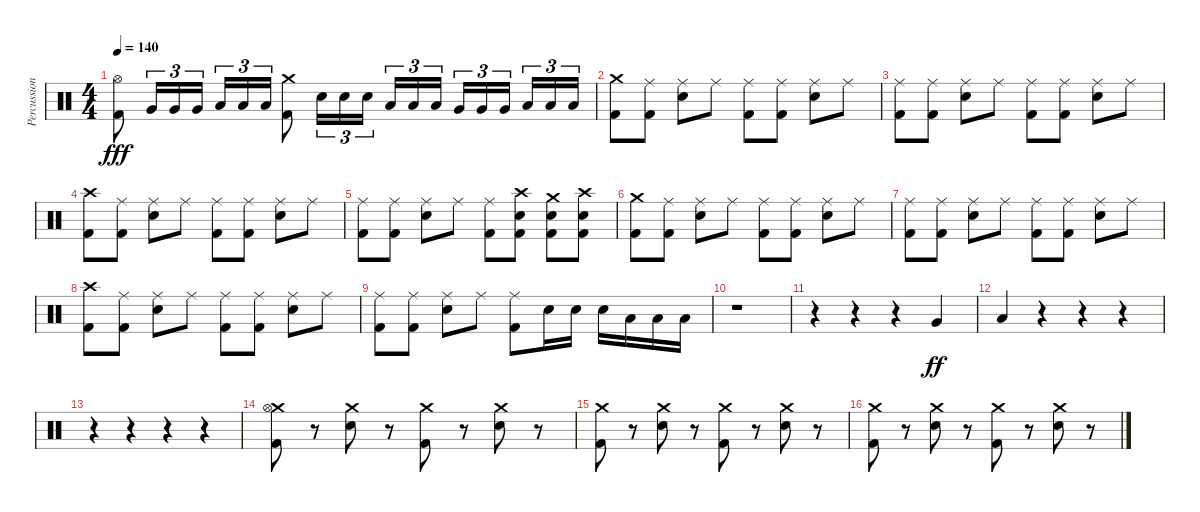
\track ("Percussion" "Percussion") {instrument percussion}
\staff {score}
\articulation defaults
\ts (4 4)
\tempo 140
\clef neutral
\ks c
("Hi-Hat (open)" "Kick (hit) 2").8{dy fff} "Very Low Tom (hit)".16{tu (3 2)} "Very Low Tom (hit)".16{tu (3 2)} "Very Low Tom (hit)".16{tu (3 2)} "Low Floor Tom (hit)".16{tu (3 2)} "Low Floor Tom (hit)".16{tu (3 2)} "Low Floor Tom (hit)".16{tu (3 2)} ("Crash medium (hit)" "Kick (hit) 2").8 "Electric Snare (hit)".16{tu (3 2)} "Electric Snare (hit)".16{tu (3 2)} "Electric Snare (hit)".16{tu (3 2) beam splitsecondary} "Low Tom (hit)".16{tu (3 2)} "Low Tom (hit)".16{tu (3 2)} "Low Tom (hit)".16{tu (3 2)} "Very Low Tom (hit)".16{tu (3 2)} "Very Low Tom (hit)".16{tu (3 2)} "Very Low Tom (hit)".16{tu (3 2) beam splitsecondary} "Low Floor Tom (hit)".16{tu (3 2)} "Low Floor Tom (hit)".16{tu (3 2)} "Low Floor Tom (hit)".16{tu (3 2)} |
("Crash medium (hit)" "Kick (hit) 2").8 ("Ride (middle)" "Kick (hit) 2").8 ("Ride (middle)" "Electric Snare (hit)").8 "Ride (middle)".8 ("Ride (middle)" "Kick (hit) 2").8 ("Ride (middle)" "Kick (hit) 2").8 ("Ride (middle)" "Electric Snare (hit)").8 "Ride (middle)".8 |
("Ride (middle)" "Kick (hit) 2").8 ("Ride (middle)" "Kick (hit) 2").8 ("Ride (middle)" "Electric Snare (hit)").8 "Ride (middle)".8 ("Ride (middle)" "Kick (hit) 2").8 ("Ride (middle)" "Kick (hit) 2").8 ("Ride (middle)" "Electric Snare (hit)").8 "Ride (middle)".8 |
("Crash high (hit)" "Kick (hit) 2").8 ("Ride (middle)" "Kick (hit) 2").8 ("Ride (middle)" "Electric Snare (hit)").8 "Ride (middle)".8 ("Ride (middle)" "Kick (hit) 2").8 ("Ride (middle)" "Kick (hit) 2").8 ("Ride (middle)" "Electric Snare (hit)").8 "Ride (middle)".8 |
("Ride (middle)" "Kick (hit) 2").8 ("Ride (middle)" "Kick (hit) 2").8 ("Ride (middle)" "Electric Snare (hit)").8 "Ride (middle)".8 ("Ride (middle)" "Kick (hit) 2").8 ("Crash high (hit)" "Electric Snare (hit)" "Kick (hit) 2").8 ("Crash medium (hit)" "Electric Snare (hit)" "Kick (hit) 2").8 ("Crash high (hit)" "Electric Snare (hit)" "Kick (hit) 2").8 |
("Crash medium (hit)" "Kick (hit) 2").8 ("Ride (middle)" "Kick (hit) 2").8 ("Ride (middle)" "Electric Snare (hit)").8 "Ride (middle)".8 ("Ride (middle)" "Kick (hit) 2").8 ("Ride (middle)" "Kick (hit) 2").8 ("Ride (middle)" "Electric Snare (hit)").8 "Ride (middle)".8 |
("Ride (middle)" "Kick (hit) 2").8 ("Ride (middle)" "Kick (hit) 2").8 ("Ride (middle)" "Electric Snare (hit)").8 "Ride (middle)".8 ("Ride (middle)" "Kick (hit) 2").8 ("Ride (middle)" "Kick (hit) 2").8 ("Ride (middle)" "Electric Snare (hit)").8 "Ride (middle)".8 |
("Crash high (hit)" "Kick (hit) 2").8 ("Ride (middle)" "Kick (hit) 2").8 ("Ride (middle)" "Electric Snare (hit)").8 "Ride (middle)".8 ("Ride (middle)" "Kick (hit) 2").8 ("Ride (middle)" "Kick (hit) 2").8 ("Ride (middle)" "Electric Snare (hit)").8 "Ride (middle)".8 |
("Ride (middle)" "Kick (hit) 2").8 ("Ride (middle)" "Kick (hit) 2").8 ("Ride (middle)" "Electric Snare (hit)").8 "Ride (middle)".8 ("Ride (middle)" "Kick (hit) 2").8 "Electric Snare (hit)".16 "Electric Snare (hit)".16 "Electric Snare (hit)".16 "Low Floor Tom (hit)".16 "Low Floor Tom (hit)".16 "Low Floor Tom (hit)".16 |
r.1 |
r.4 r.4 r.4 "Very Low Tom (hit)".4{dy ff} |
"Low Floor Tom (hit)".4 r.4 r.4 r.4 |
r.4 r.4 r.4 r.4 |
("Crash medium (hit)" "Hi-Hat (open)" "Kick (hit) 2").8 r.8 ("Crash medium (hit)" "Electric Snare (hit)").8 r.8 ("Crash medium (hit)" "Kick (hit) 2").8 r.8 ("Crash medium (hit)" "Electric Snare (hit)").8 r.8 |
("Crash medium (hit)" "Kick (hit) 2").8 r.8 ("Crash medium (hit)" "Electric Snare (hit)").8 r.8 ("Crash medium (hit)" "Kick (hit) 2").8 r.8 ("Crash medium (hit)" "Electric Snare (hit)").8 r.8 |
("Crash medium (hit)" "Kick (hit) 2").8 r.8 ("Crash medium (hit)" "Electric Snare (hit)").8 r.8 ("Crash medium (hit)" "Kick (hit) 2").8 r.8 ("Crash medium (hit)" "Electric Snare (hit)").8 r.8
